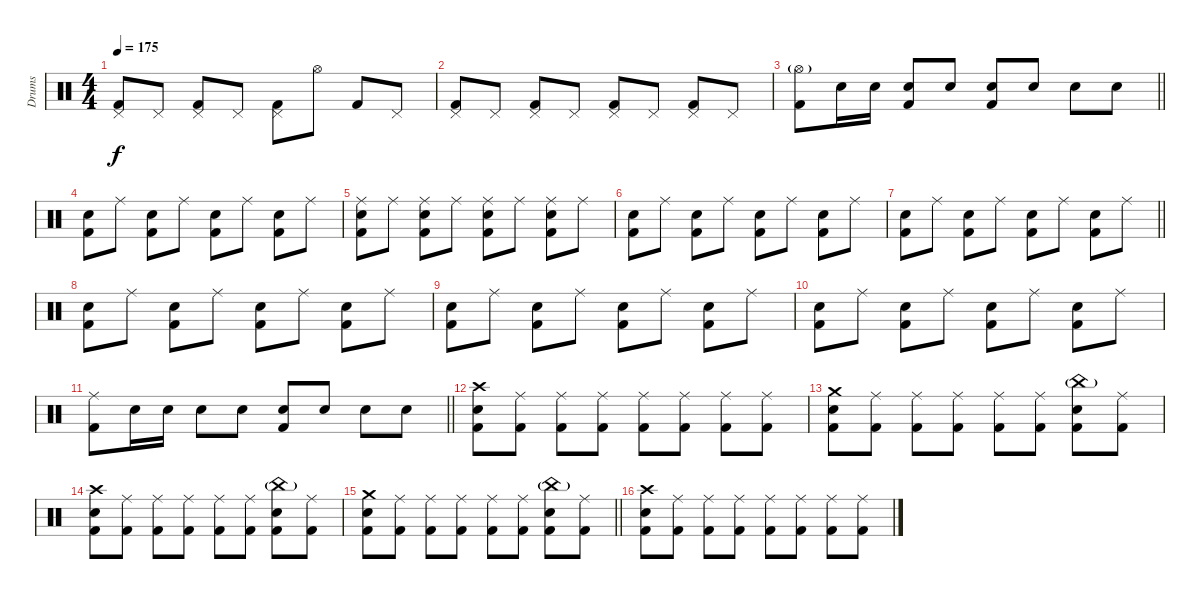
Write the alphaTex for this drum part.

\track ("Drums" "Drums") {instrument percussion}
\staff {score}
\articulation defaults
\ts (4 4)
\tempo 175
\clef neutral
\ks c
("Pedal Hi-Hat (hit)" "Kick (hit) 2").8{dy f} "Pedal Hi-Hat (hit)".8 ("Pedal Hi-Hat (hit)" "Kick (hit) 2").8 "Pedal Hi-Hat (hit)".8 ("Pedal Hi-Hat (hit)" "Kick (hit) 2").8 "Hi-Hat (open)".8 "Kick (hit) 2".8 "Pedal Hi-Hat (hit)".8 |
("Pedal Hi-Hat (hit)" "Kick (hit) 2").8 "Pedal Hi-Hat (hit)".8 ("Pedal Hi-Hat (hit)" "Kick (hit) 2").8 "Pedal Hi-Hat (hit)".8 ("Pedal Hi-Hat (hit)" "Kick (hit) 2").8 "Pedal Hi-Hat (hit)".8 ("Pedal Hi-Hat (hit)" "Kick (hit) 2").8 "Pedal Hi-Hat (hit)".8 |
\barLineRight lightlight
("Hi-Hat (open)"{g} "Kick (hit) 2").8 "Electric Snare (hit)".16 "Electric Snare (hit)".16 ("Electric Snare (hit)" "Kick (hit) 2").8 "Electric Snare (hit)".8 ("Electric Snare (hit)" "Kick (hit) 2").8 "Electric Snare (hit)".8 "Electric Snare (hit)".8 "Electric Snare (hit)".8 |
("Electric Snare (hit)" "Kick (hit) 2").8 "Ride (middle)".8 ("Electric Snare (hit)" "Kick (hit) 2").8 "Ride (middle)".8 ("Electric Snare (hit)" "Kick (hit) 2").8 "Ride (middle)".8 ("Electric Snare (hit)" "Kick (hit) 2").8 "Ride (middle)".8 |
("Ride (middle)" "Electric Snare (hit)" "Kick (hit) 2").8 "Ride (middle)".8 ("Ride (middle)" "Electric Snare (hit)" "Kick (hit) 2").8 "Ride (middle)".8 ("Ride (middle)" "Electric Snare (hit)" "Kick (hit) 2").8 "Ride (middle)".8 ("Ride (middle)" "Electric Snare (hit)" "Kick (hit) 2").8 "Ride (middle)".8 |
("Electric Snare (hit)" "Kick (hit) 2").8 "Ride (middle)".8 ("Electric Snare (hit)" "Kick (hit) 2").8 "Ride (middle)".8 ("Electric Snare (hit)" "Kick (hit) 2").8 "Ride (middle)".8 ("Electric Snare (hit)" "Kick (hit) 2").8 "Ride (middle)".8 |
\barLineRight lightlight
("Electric Snare (hit)" "Kick (hit) 2").8 "Ride (middle)".8 ("Electric Snare (hit)" "Kick (hit) 2").8 "Ride (middle)".8 ("Electric Snare (hit)" "Kick (hit) 2").8 "Ride (middle)".8 ("Electric Snare (hit)" "Kick (hit) 2").8 "Ride (middle)".8 |
("Electric Snare (hit)" "Kick (hit) 2").8 "Ride (middle)".8 ("Electric Snare (hit)" "Kick (hit) 2").8 "Ride (middle)".8 ("Electric Snare (hit)" "Kick (hit) 2").8 "Ride (middle)".8 ("Electric Snare (hit)" "Kick (hit) 2").8 "Ride (middle)".8 |
("Electric Snare (hit)" "Kick (hit) 2").8 "Ride (middle)".8 ("Electric Snare (hit)" "Kick (hit) 2").8 "Ride (middle)".8 ("Electric Snare (hit)" "Kick (hit) 2").8 "Ride (middle)".8 ("Electric Snare (hit)" "Kick (hit) 2").8 "Ride (middle)".8 |
("Electric Snare (hit)" "Kick (hit) 2").8 "Ride (middle)".8 ("Electric Snare (hit)" "Kick (hit) 2").8 "Ride (middle)".8 ("Electric Snare (hit)" "Kick (hit) 2").8 "Ride (middle)".8 ("Electric Snare (hit)" "Kick (hit) 2").8 "Ride (middle)".8 |
\barLineRight lightlight
("Ride (middle)" "Kick (hit) 2").8 "Electric Snare (hit)".16 "Electric Snare (hit)".16 "Electric Snare (hit)".8 "Electric Snare (hit)".8 ("Electric Snare (hit)" "Kick (hit) 2").8 "Electric Snare (hit)".8 "Electric Snare (hit)".8 "Electric Snare (hit)".8 |
("Crash high (hit)" "Electric Snare (hit)" "Kick (hit) 2").8 ("Ride (middle)" "Kick (hit) 2").8 ("Ride (middle)" "Kick (hit) 2").8 ("Ride (middle)" "Kick (hit) 2").8 ("Ride (middle)" "Kick (hit) 2").8 ("Ride (middle)" "Kick (hit) 2").8 ("Ride (middle)" "Kick (hit) 2").8 ("Ride (middle)" "Kick (hit) 2").8 |
("Crash medium (hit)" "Electric Snare (hit)" "Kick (hit) 2").8 ("Ride (middle)" "Kick (hit) 2").8 ("Ride (middle)" "Kick (hit) 2").8 ("Ride (middle)" "Kick (hit) 2").8 ("Ride (middle)" "Kick (hit) 2").8 ("Ride (middle)" "Kick (hit) 2").8 ("China (hit)"{g} "Electric Snare (hit)" "Kick (hit) 2").8 ("Ride (middle)" "Kick (hit) 2").8 |
("Crash high (hit)" "Electric Snare (hit)" "Kick (hit) 2").8 ("Ride (middle)" "Kick (hit) 2").8 ("Ride (middle)" "Kick (hit) 2").8 ("Ride (middle)" "Kick (hit) 2").8 ("Ride (middle)" "Kick (hit) 2").8 ("Ride (middle)" "Kick (hit) 2").8 ("China (hit)"{g} "Electric Snare (hit)" "Kick (hit) 2").8 ("Ride (middle)" "Kick (hit) 2").8 |
\barLineRight lightlight
("Crash medium (hit)" "Electric Snare (hit)" "Kick (hit) 2").8 ("Ride (middle)" "Kick (hit) 2").8 ("Ride (middle)" "Kick (hit) 2").8 ("Ride (middle)" "Kick (hit) 2").8 ("Ride (middle)" "Kick (hit) 2").8 ("Ride (middle)" "Kick (hit) 2").8 ("China (hit)"{g} "Electric Snare (hit)" "Kick (hit) 2").8 ("Ride (middle)" "Kick (hit) 2").8 |
("Crash high (hit)" "Electric Snare (hit)" "Kick (hit) 2").8 ("Ride (middle)" "Kick (hit) 2").8 ("Ride (middle)" "Kick (hit) 2").8 ("Ride (middle)" "Kick (hit) 2").8 ("Ride (middle)" "Kick (hit) 2").8 ("Ride (middle)" "Kick (hit) 2").8 ("Ride (middle)" "Kick (hit) 2").8 ("Ride (middle)" "Kick (hit) 2").8
